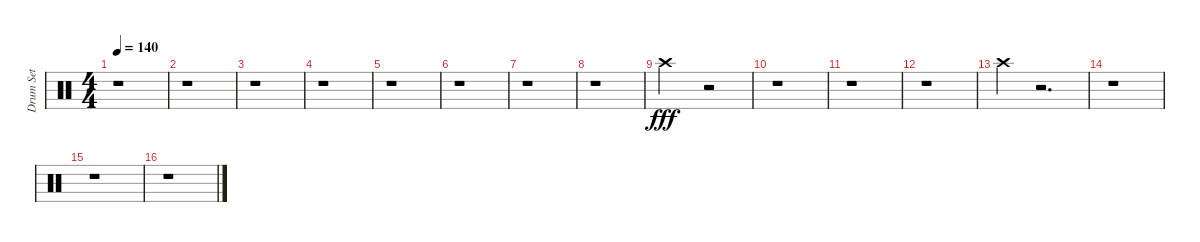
\track ("Drum Set" "Drum Set") {instrument percussion}
\staff {score}
\articulation defaults
\ts (4 4)
\tempo 140
\clef neutral
\ks c
r.1{dy fff} |
r.1 |
r.1 |
r.1 |
r.1 |
r.1 |
r.1 |
r.1 |
"Crash high (hit)".2 r.2 |
r.1 |
r.1 |
r.1 |
"Crash high (hit)".4 r.2{d} |
r.1 |
r.1 |
r.1
